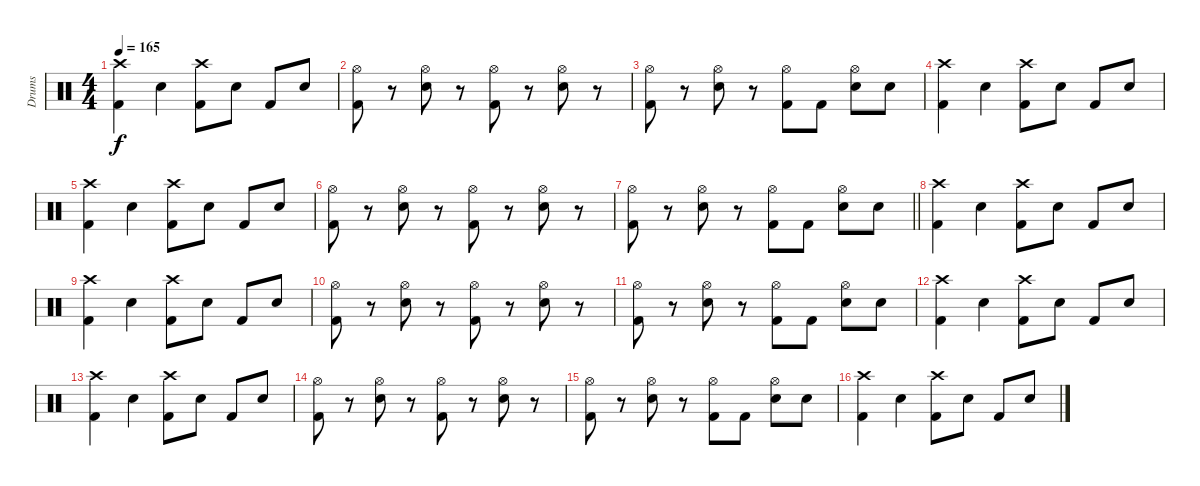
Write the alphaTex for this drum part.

\track ("Drums" "Drums") {instrument percussion}
\staff {score}
\articulation defaults
\ts (4 4)
\tempo 165
\clef neutral
\ks c
("Crash high (hit)" "Kick (hit) 2").4{dy f} "Snare (hit) 2".4 ("Crash high (hit)" "Kick (hit) 2").8 "Snare (hit) 2".8 "Kick (hit) 2".8 "Snare (hit) 2".8 |
("Hi-Hat (open)" "Kick (hit) 2").8 r.8 ("Hi-Hat (open)" "Snare (hit) 2").8 r.8 ("Hi-Hat (open)" "Kick (hit) 2").8 r.8 ("Hi-Hat (open)" "Snare (hit) 2").8 r.8 |
("Hi-Hat (open)" "Kick (hit) 2").8 r.8 ("Hi-Hat (open)" "Snare (hit) 2").8 r.8 ("Hi-Hat (open)" "Kick (hit) 2").8 "Kick (hit) 2".8 ("Hi-Hat (open)" "Snare (hit) 2").8 "Snare (hit) 2".8 |
("Crash high (hit)" "Kick (hit) 2").4 "Snare (hit) 2".4 ("Crash high (hit)" "Kick (hit) 2").8 "Snare (hit) 2".8 "Kick (hit) 2".8 "Snare (hit) 2".8 |
("Crash high (hit)" "Kick (hit) 2").4 "Snare (hit) 2".4 ("Crash high (hit)" "Kick (hit) 2").8 "Snare (hit) 2".8 "Kick (hit) 2".8 "Snare (hit) 2".8 |
("Hi-Hat (open)" "Kick (hit) 2").8 r.8 ("Hi-Hat (open)" "Snare (hit) 2").8 r.8 ("Hi-Hat (open)" "Kick (hit) 2").8 r.8 ("Hi-Hat (open)" "Snare (hit) 2").8 r.8 |
\barLineRight lightlight
("Hi-Hat (open)" "Kick (hit) 2").8 r.8 ("Hi-Hat (open)" "Snare (hit) 2").8 r.8 ("Hi-Hat (open)" "Kick (hit) 2").8 "Kick (hit) 2".8 ("Hi-Hat (open)" "Snare (hit) 2").8 "Snare (hit) 2".8 |
("Crash high (hit)" "Kick (hit) 2").4 "Snare (hit) 2".4 ("Crash high (hit)" "Kick (hit) 2").8 "Snare (hit) 2".8 "Kick (hit) 2".8 "Snare (hit) 2".8 |
("Crash high (hit)" "Kick (hit) 2").4 "Snare (hit) 2".4 ("Crash high (hit)" "Kick (hit) 2").8 "Snare (hit) 2".8 "Kick (hit) 2".8 "Snare (hit) 2".8 |
("Hi-Hat (open)" "Kick (hit) 2").8 r.8 ("Hi-Hat (open)" "Snare (hit) 2").8 r.8 ("Hi-Hat (open)" "Kick (hit) 2").8 r.8 ("Hi-Hat (open)" "Snare (hit) 2").8 r.8 |
("Hi-Hat (open)" "Kick (hit) 2").8 r.8 ("Hi-Hat (open)" "Snare (hit) 2").8 r.8 ("Hi-Hat (open)" "Kick (hit) 2").8 "Kick (hit) 2".8 ("Hi-Hat (open)" "Snare (hit) 2").8 "Snare (hit) 2".8 |
("Crash high (hit)" "Kick (hit) 2").4 "Snare (hit) 2".4 ("Crash high (hit)" "Kick (hit) 2").8 "Snare (hit) 2".8 "Kick (hit) 2".8 "Snare (hit) 2".8 |
("Crash high (hit)" "Kick (hit) 2").4 "Snare (hit) 2".4 ("Crash high (hit)" "Kick (hit) 2").8 "Snare (hit) 2".8 "Kick (hit) 2".8 "Snare (hit) 2".8 |
("Hi-Hat (open)" "Kick (hit) 2").8 r.8 ("Hi-Hat (open)" "Snare (hit) 2").8 r.8 ("Hi-Hat (open)" "Kick (hit) 2").8 r.8 ("Hi-Hat (open)" "Snare (hit) 2").8 r.8 |
("Hi-Hat (open)" "Kick (hit) 2").8 r.8 ("Hi-Hat (open)" "Snare (hit) 2").8 r.8 ("Hi-Hat (open)" "Kick (hit) 2").8 "Kick (hit) 2".8 ("Hi-Hat (open)" "Snare (hit) 2").8 "Snare (hit) 2".8 |
("Crash high (hit)" "Kick (hit) 2").4 "Snare (hit) 2".4 ("Crash high (hit)" "Kick (hit) 2").8 "Snare (hit) 2".8 "Kick (hit) 2".8 "Snare (hit) 2".8
